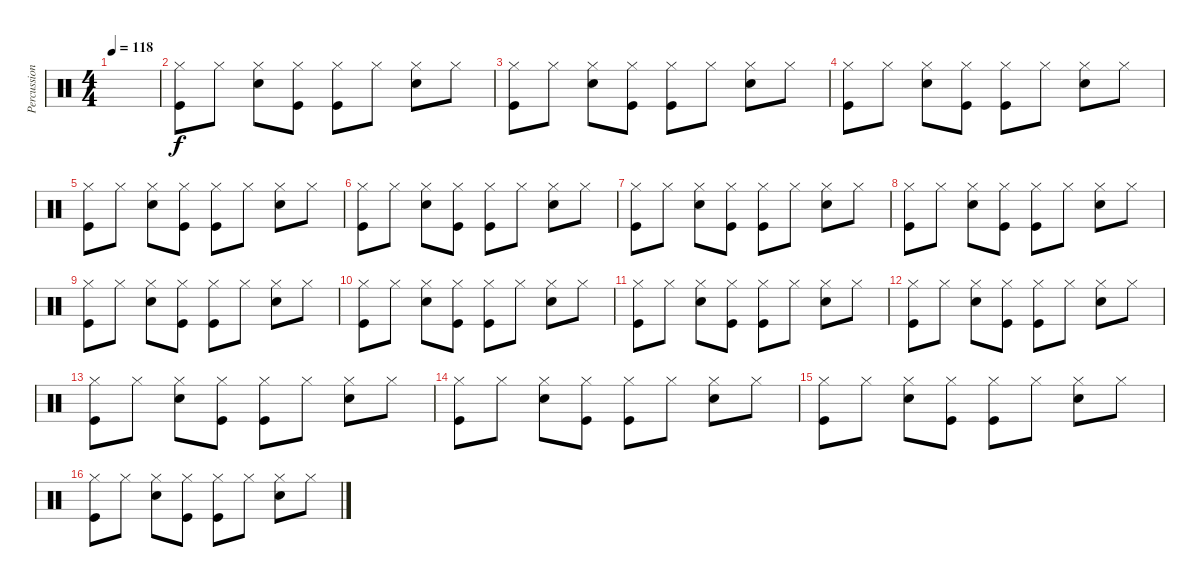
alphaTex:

\track ("Percussions" "Percussion") {instrument percussion}
\staff {score}
\articulation defaults
\ts (4 4)
\tempo 118
\clef neutral
\ks c
|
("Hi-Hat (closed)" "Kick (hit)").8 "Hi-Hat (closed)".8 ("Hi-Hat (closed)" "Snare (hit) 2").8 ("Hi-Hat (closed)" "Kick (hit)").8 ("Hi-Hat (closed)" "Kick (hit)").8 "Hi-Hat (closed)".8 ("Hi-Hat (closed)" "Snare (hit) 2").8 "Hi-Hat (closed)".8 |
("Hi-Hat (closed)" "Kick (hit)").8 "Hi-Hat (closed)".8 ("Hi-Hat (closed)" "Snare (hit) 2").8 ("Hi-Hat (closed)" "Kick (hit)").8 ("Hi-Hat (closed)" "Kick (hit)").8 "Hi-Hat (closed)".8 ("Hi-Hat (closed)" "Snare (hit) 2").8 "Hi-Hat (closed)".8 |
("Hi-Hat (closed)" "Kick (hit)").8 "Hi-Hat (closed)".8 ("Hi-Hat (closed)" "Snare (hit) 2").8 ("Hi-Hat (closed)" "Kick (hit)").8 ("Hi-Hat (closed)" "Kick (hit)").8 "Hi-Hat (closed)".8 ("Hi-Hat (closed)" "Snare (hit) 2").8 "Hi-Hat (closed)".8 |
("Hi-Hat (closed)" "Kick (hit)").8 "Hi-Hat (closed)".8 ("Hi-Hat (closed)" "Snare (hit) 2").8 ("Hi-Hat (closed)" "Kick (hit)").8 ("Hi-Hat (closed)" "Kick (hit)").8 "Hi-Hat (closed)".8 ("Hi-Hat (closed)" "Snare (hit) 2").8 "Hi-Hat (closed)".8 |
("Hi-Hat (closed)" "Kick (hit)").8 "Hi-Hat (closed)".8 ("Hi-Hat (closed)" "Snare (hit) 2").8 ("Hi-Hat (closed)" "Kick (hit)").8 ("Hi-Hat (closed)" "Kick (hit)").8 "Hi-Hat (closed)".8 ("Hi-Hat (closed)" "Snare (hit) 2").8 "Hi-Hat (closed)".8 |
("Hi-Hat (closed)" "Kick (hit)").8 "Hi-Hat (closed)".8 ("Hi-Hat (closed)" "Snare (hit) 2").8 ("Hi-Hat (closed)" "Kick (hit)").8 ("Hi-Hat (closed)" "Kick (hit)").8 "Hi-Hat (closed)".8 ("Hi-Hat (closed)" "Snare (hit) 2").8 "Hi-Hat (closed)".8 |
("Hi-Hat (closed)" "Kick (hit)").8 "Hi-Hat (closed)".8 ("Hi-Hat (closed)" "Snare (hit) 2").8 ("Hi-Hat (closed)" "Kick (hit)").8 ("Hi-Hat (closed)" "Kick (hit)").8 "Hi-Hat (closed)".8 ("Hi-Hat (closed)" "Snare (hit) 2").8 "Hi-Hat (closed)".8 |
("Hi-Hat (closed)" "Kick (hit)").8 "Hi-Hat (closed)".8 ("Hi-Hat (closed)" "Snare (hit) 2").8 ("Hi-Hat (closed)" "Kick (hit)").8 ("Hi-Hat (closed)" "Kick (hit)").8 "Hi-Hat (closed)".8 ("Hi-Hat (closed)" "Snare (hit) 2").8 "Hi-Hat (closed)".8 |
("Hi-Hat (closed)" "Kick (hit)").8 "Hi-Hat (closed)".8 ("Hi-Hat (closed)" "Snare (hit) 2").8 ("Hi-Hat (closed)" "Kick (hit)").8 ("Hi-Hat (closed)" "Kick (hit)").8 "Hi-Hat (closed)".8 ("Hi-Hat (closed)" "Snare (hit) 2").8 "Hi-Hat (closed)".8 |
("Hi-Hat (closed)" "Kick (hit)").8 "Hi-Hat (closed)".8 ("Hi-Hat (closed)" "Snare (hit) 2").8 ("Hi-Hat (closed)" "Kick (hit)").8 ("Hi-Hat (closed)" "Kick (hit)").8 "Hi-Hat (closed)".8 ("Hi-Hat (closed)" "Snare (hit) 2").8 "Hi-Hat (closed)".8 |
("Hi-Hat (closed)" "Kick (hit)").8 "Hi-Hat (closed)".8 ("Hi-Hat (closed)" "Snare (hit) 2").8 ("Hi-Hat (closed)" "Kick (hit)").8 ("Hi-Hat (closed)" "Kick (hit)").8 "Hi-Hat (closed)".8 ("Hi-Hat (closed)" "Snare (hit) 2").8 "Hi-Hat (closed)".8 |
("Hi-Hat (closed)" "Kick (hit)").8 "Hi-Hat (closed)".8 ("Hi-Hat (closed)" "Snare (hit) 2").8 ("Hi-Hat (closed)" "Kick (hit)").8 ("Hi-Hat (closed)" "Kick (hit)").8 "Hi-Hat (closed)".8 ("Hi-Hat (closed)" "Snare (hit) 2").8 "Hi-Hat (closed)".8 |
("Hi-Hat (closed)" "Kick (hit)").8 "Hi-Hat (closed)".8 ("Hi-Hat (closed)" "Snare (hit) 2").8 ("Hi-Hat (closed)" "Kick (hit)").8 ("Hi-Hat (closed)" "Kick (hit)").8 "Hi-Hat (closed)".8 ("Hi-Hat (closed)" "Snare (hit) 2").8 "Hi-Hat (closed)".8 |
("Hi-Hat (closed)" "Kick (hit)").8 "Hi-Hat (closed)".8 ("Hi-Hat (closed)" "Snare (hit) 2").8 ("Hi-Hat (closed)" "Kick (hit)").8 ("Hi-Hat (closed)" "Kick (hit)").8 "Hi-Hat (closed)".8 ("Hi-Hat (closed)" "Snare (hit) 2").8 "Hi-Hat (closed)".8 |
("Hi-Hat (closed)" "Kick (hit)").8 "Hi-Hat (closed)".8 ("Hi-Hat (closed)" "Snare (hit) 2").8 ("Hi-Hat (closed)" "Kick (hit)").8 ("Hi-Hat (closed)" "Kick (hit)").8 "Hi-Hat (closed)".8 ("Hi-Hat (closed)" "Snare (hit) 2").8 "Hi-Hat (closed)".8
